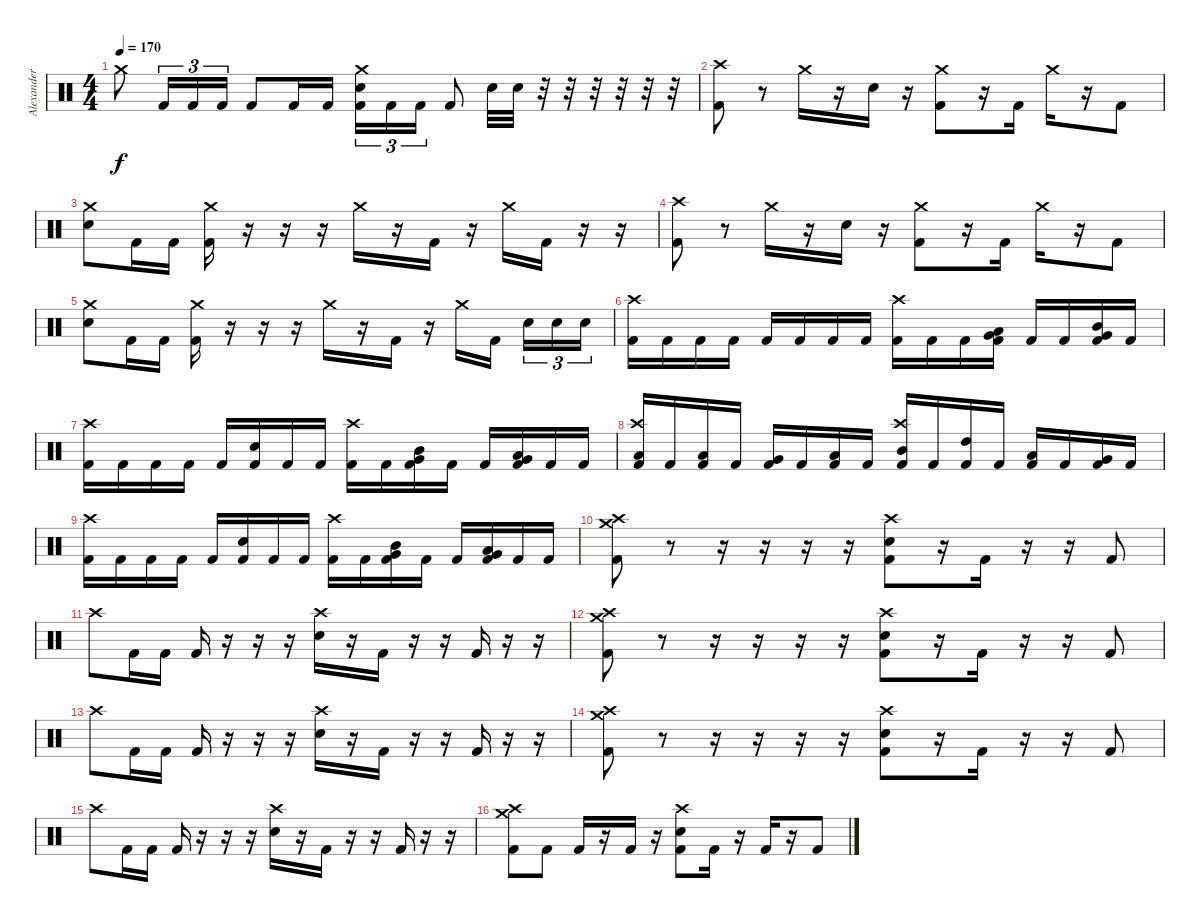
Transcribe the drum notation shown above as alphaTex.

\track ("Alexander Yazikov" "Alexander ") {instrument percussion}
\staff {score}
\articulation defaults
\ts (4 4)
\tempo 170
\clef neutral
\ks c "Crash medium (hit)".8{dy f} "Kick (hit) 2".16{tu (3 2)} "Kick (hit) 2".16{tu (3 2)} "Kick (hit) 2".16{tu (3 2)} "Kick (hit) 2".8 "Kick (hit) 2".16 "Kick (hit) 2".16
("Crash medium (hit)" "Electric Snare (hit)" "Kick (hit) 2").16{tu (3 2)} "Kick (hit) 2".16{tu (3 2)} "Kick (hit) 2".16{tu (3 2)} "Kick (hit) 2".8 "Electric Snare (hit)".32 "Electric Snare (hit)".32 r.32 r.32 r.32 r.32 r.32 r.32 |
("Crash high (hit)" "Kick (hit) 2").8 r.8 "Crash medium (hit)".16 r.16 "Electric Snare (hit)".16 r.16 ("Crash medium (hit)" "Kick (hit) 2").8 r.16 "Kick (hit) 2".16 "Crash medium (hit)".16 r.16 "Kick (hit) 2".8 |
("Crash medium (hit)" "Electric Snare (hit)").8 "Kick (hit) 2".16 "Kick (hit) 2".16 ("Crash medium (hit)" "Kick (hit) 2").16 r.16 r.16 r.16 "Crash medium (hit)".16 r.16 "Kick (hit) 2".16 r.16 "Crash medium (hit)".16 "Kick (hit) 2".16 r.16 r.16 |
("Crash high (hit)" "Kick (hit) 2").8 r.8 "Crash medium (hit)".16 r.16 "Electric Snare (hit)".16 r.16 ("Crash medium (hit)" "Kick (hit) 2").8 r.16 "Kick (hit) 2".16 "Crash medium (hit)".16 r.16 "Kick (hit) 2".8 |
("Crash medium (hit)" "Electric Snare (hit)").8 "Kick (hit) 2".16 "Kick (hit) 2".16 ("Crash medium (hit)" "Kick (hit) 2").16 r.16 r.16 r.16 "Crash medium (hit)".16 r.16 "Kick (hit) 2".16 r.16 "Crash medium (hit)".16 "Kick (hit) 2".16{beam splitsecondary} "Electric Snare (hit)".16{tu (3 2)} "Electric Snare (hit)".16{tu (3 2)} "Electric Snare (hit)".16{tu (3 2)} |
("Crash high (hit)" "Kick (hit) 2").16 "Kick (hit) 2".16 "Kick (hit) 2".16 "Kick (hit) 2".16 "Kick (hit) 2".16 "Kick (hit) 2".16 "Kick (hit) 2".16 "Kick (hit) 2".16 ("Crash high (hit)" "Kick (hit) 2").16 "Kick (hit) 2".16 "Kick (hit) 2".16 ("Very Low Tom (hit)" "Low Tom (hit)" "Kick (hit) 2").16 "Kick (hit) 2".16 "Kick (hit) 2".16 ("Mid Tom (hit)" "Very Low Tom (hit)" "Kick (hit) 2").16 "Kick (hit) 2".16 |
("Crash high (hit)" "Kick (hit) 2").16 "Kick (hit) 2".16 "Kick (hit) 2".16 "Kick (hit) 2".16 "Kick (hit) 2".16 ("Electric Snare (hit)" "Kick (hit) 2").16 "Kick (hit) 2".16 "Kick (hit) 2".16 ("Crash high (hit)" "Kick (hit) 2").16 "Kick (hit) 2".16 ("Mid Tom (hit)" "Very Low Tom (hit)" "Kick (hit) 2").16 "Kick (hit) 2".16 "Kick (hit) 2".16 ("Very Low Tom (hit)" "Low Tom (hit)" "Kick (hit) 2").16 "Kick (hit) 2".16 "Kick (hit) 2".16 |
("Crash high (hit)" "Low Floor Tom (hit)" "Kick (hit) 2").16 "Kick (hit) 2".16 ("Low Tom (hit)" "Kick (hit) 2").16 "Kick (hit) 2".16 ("Very Low Tom (hit)" "Kick (hit) 2").16 "Kick (hit) 2".16 ("Low Tom (hit)" "Kick (hit) 2").16 "Kick (hit) 2".16 ("Crash high (hit)" "Mid Tom (hit)" "Kick (hit) 2").16 "Kick (hit) 2".16 ("High Tom (hit)" "Kick (hit) 2").16 "Kick (hit) 2".16 ("Low Tom (hit)" "Kick (hit) 2").16 "Kick (hit) 2".16 ("Very Low Tom (hit)" "Kick (hit) 2").16 "Kick (hit) 2".16 |
("Crash high (hit)" "Kick (hit) 2").16 "Kick (hit) 2".16 "Kick (hit) 2".16 "Kick (hit) 2".16 "Kick (hit) 2".16 ("Electric Snare (hit)" "Kick (hit) 2").16 "Kick (hit) 2".16 "Kick (hit) 2".16 ("Crash high (hit)" "Kick (hit) 2").16 "Kick (hit) 2".16 ("Mid Tom (hit)" "Very Low Tom (hit)" "Kick (hit) 2").16 "Kick (hit) 2".16 "Kick (hit) 2".16 ("Very Low Tom (hit)" "Low Tom (hit)" "Kick (hit) 2").16 "Kick (hit) 2".16 "Kick (hit) 2".16 |
("Crash high (hit)" "Crash medium (hit)" "Kick (hit) 2").8 r.8 r.16 r.16 r.16 r.16 ("Crash high (hit)" "Electric Snare (hit)" "Kick (hit) 2").8 r.16 "Kick (hit) 2".16 r.16 r.16 "Kick (hit) 2".8 |
"Crash high (hit)".8 "Kick (hit) 2".16 "Kick (hit) 2".16 "Kick (hit) 2".16 r.16 r.16 r.16 ("Crash high (hit)" "Electric Snare (hit)").16 r.16 "Kick (hit) 2".16 r.16 r.16 "Kick (hit) 2".16 r.16 r.16 |
("Crash high (hit)" "Crash medium (hit)" "Kick (hit) 2").8 r.8 r.16 r.16 r.16 r.16 ("Crash high (hit)" "Electric Snare (hit)" "Kick (hit) 2").8 r.16 "Kick (hit) 2".16 r.16 r.16 "Kick (hit) 2".8 |
"Crash high (hit)".8 "Kick (hit) 2".16 "Kick (hit) 2".16 "Kick (hit) 2".16 r.16 r.16 r.16 ("Crash high (hit)" "Electric Snare (hit)").16 r.16 "Kick (hit) 2".16 r.16 r.16 "Kick (hit) 2".16 r.16 r.16 |
("Crash high (hit)" "Crash medium (hit)" "Kick (hit) 2").8 r.8 r.16 r.16 r.16 r.16 ("Crash high (hit)" "Electric Snare (hit)" "Kick (hit) 2").8 r.16 "Kick (hit) 2".16 r.16 r.16 "Kick (hit) 2".8 |
"Crash high (hit)".8 "Kick (hit) 2".16 "Kick (hit) 2".16 "Kick (hit) 2".16 r.16 r.16 r.16 ("Crash high (hit)" "Electric Snare (hit)").16 r.16 "Kick (hit) 2".16 r.16 r.16 "Kick (hit) 2".16 r.16 r.16 |
("Crash high (hit)" "Crash medium (hit)" "Kick (hit) 2").8 "Kick (hit) 2".8 "Kick (hit) 2".16 r.16 "Kick (hit) 2".16 r.16 ("Crash high (hit)" "Electric Snare (hit)" "Kick (hit) 2").8 "Kick (hit) 2".16 r.16 "Kick (hit) 2".16 r.16 "Kick (hit) 2".8
